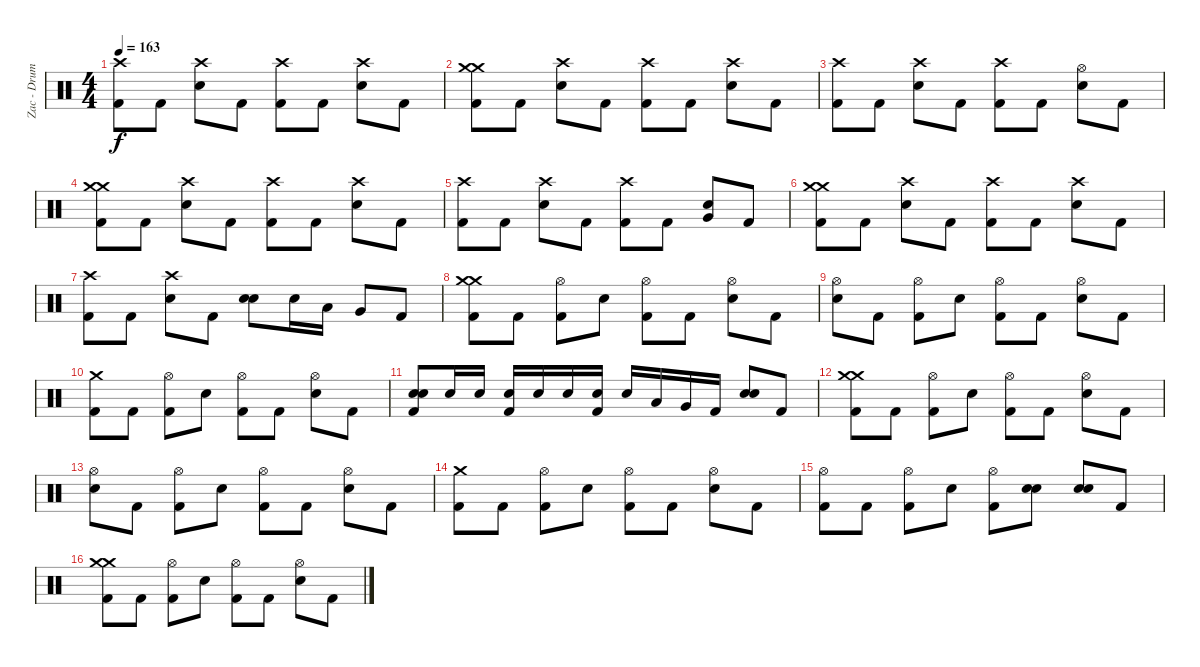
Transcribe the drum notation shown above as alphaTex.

\track ("Zac - Drums" "Zac - Drum") {instrument percussion}
\staff {score}
\articulation defaults
\ts (4 4)
\tempo 163
\clef neutral
\ks c
("Crash high (hit)" "Kick (hit) 2").8{dy f} "Kick (hit) 2".8 ("Crash high (hit)" "Snare (hit) 2").8 "Kick (hit) 2".8 ("Crash high (hit)" "Kick (hit) 2").8 "Kick (hit) 2".8 ("Crash high (hit)" "Snare (hit) 2").8 "Kick (hit) 2".8 |
("Crash medium (hit)" "Crash medium (hit)" "Kick (hit) 2").8 "Kick (hit) 2".8 ("Crash high (hit)" "Snare (hit) 2").8 "Kick (hit) 2".8 ("Crash high (hit)" "Kick (hit) 2").8 "Kick (hit) 2".8 ("Crash high (hit)" "Snare (hit) 2").8 "Kick (hit) 2".8 |
("Crash high (hit)" "Kick (hit) 2").8 "Kick (hit) 2".8 ("Crash high (hit)" "Snare (hit) 2").8 "Kick (hit) 2".8 ("Crash high (hit)" "Kick (hit) 2").8 "Kick (hit) 2".8 ("Hi-Hat (open)" "Snare (hit) 2").8 "Kick (hit) 2".8 |
("Crash medium (hit)" "Crash medium (hit)" "Kick (hit) 2").8 "Kick (hit) 2".8 ("Crash high (hit)" "Snare (hit) 2").8 "Kick (hit) 2".8 ("Crash high (hit)" "Kick (hit) 2").8 "Kick (hit) 2".8 ("Crash high (hit)" "Snare (hit) 2").8 "Kick (hit) 2".8 |
("Crash high (hit)" "Kick (hit) 2").8 "Kick (hit) 2".8 ("Crash high (hit)" "Snare (hit) 2").8 "Kick (hit) 2".8 ("Crash high (hit)" "Kick (hit) 2").8 "Kick (hit) 2".8 ("Snare (hit) 2" "Very Low Tom (hit)").8 "Kick (hit) 2".8 |
("Crash medium (hit)" "Crash medium (hit)" "Kick (hit) 2").8 "Kick (hit) 2".8 ("Crash high (hit)" "Snare (hit) 2").8 "Kick (hit) 2".8 ("Crash high (hit)" "Kick (hit) 2").8 "Kick (hit) 2".8 ("Crash high (hit)" "Snare (hit) 2").8 "Kick (hit) 2".8 |
("Crash high (hit)" "Kick (hit) 2").8 "Kick (hit) 2".8 ("Crash high (hit)" "Snare (hit) 2").8 "Kick (hit) 2".8 ("Snare (hit) 2" "Snare (hit) 2").8 "Snare (hit) 2".16 "Low Tom (hit)".16 "Very Low Tom (hit)".8 "Kick (hit) 2".8 |
("Crash medium (hit)" "Crash medium (hit)" "Kick (hit) 2").8 "Kick (hit) 2".8 ("Hi-Hat (open)" "Kick (hit) 2").8 "Snare (hit) 2".8 ("Hi-Hat (open)" "Kick (hit) 2").8 "Kick (hit) 2".8 ("Hi-Hat (open)" "Snare (hit) 2").8 "Kick (hit) 2".8 |
("Hi-Hat (open)" "Snare (hit) 2").8 "Kick (hit) 2".8 ("Hi-Hat (open)" "Kick (hit) 2").8 "Snare (hit) 2".8 ("Hi-Hat (open)" "Kick (hit) 2").8 "Kick (hit) 2".8 ("Hi-Hat (open)" "Snare (hit) 2").8 "Kick (hit) 2".8 |
("Crash medium (hit)" "Kick (hit) 2").8 "Kick (hit) 2".8 ("Hi-Hat (open)" "Kick (hit) 2").8 "Snare (hit) 2".8 ("Hi-Hat (open)" "Kick (hit) 2").8 "Kick (hit) 2".8 ("Hi-Hat (open)" "Snare (hit) 2").8 "Kick (hit) 2".8 |
("Snare (hit) 2" "Snare (hit) 2" "Kick (hit) 2").8 "Snare (hit) 2".16 "Snare (hit) 2".16 ("Snare (hit) 2" "Kick (hit) 2").16 "Snare (hit) 2".16 "Snare (hit) 2".16 ("Snare (hit) 2" "Kick (hit) 2").16 "Snare (hit) 2".16 "Low Tom (hit)".16 "Very Low Tom (hit)".16 "Kick (hit) 2".16 ("Snare (hit) 2" "Snare (hit) 2").8 "Kick (hit) 2".8 |
("Crash medium (hit)" "Crash medium (hit)" "Kick (hit) 2").8 "Kick (hit) 2".8 ("Hi-Hat (open)" "Kick (hit) 2").8 "Snare (hit) 2".8 ("Hi-Hat (open)" "Kick (hit) 2").8 "Kick (hit) 2".8 ("Hi-Hat (open)" "Snare (hit) 2").8 "Kick (hit) 2".8 |
("Hi-Hat (open)" "Snare (hit) 2").8 "Kick (hit) 2".8 ("Hi-Hat (open)" "Kick (hit) 2").8 "Snare (hit) 2".8 ("Hi-Hat (open)" "Kick (hit) 2").8 "Kick (hit) 2".8 ("Hi-Hat (open)" "Snare (hit) 2").8 "Kick (hit) 2".8 |
("Crash medium (hit)" "Kick (hit) 2").8 "Kick (hit) 2".8 ("Hi-Hat (open)" "Kick (hit) 2").8 "Snare (hit) 2".8 ("Hi-Hat (open)" "Kick (hit) 2").8 "Kick (hit) 2".8 ("Hi-Hat (open)" "Snare (hit) 2").8 "Kick (hit) 2".8 |
("Hi-Hat (open)" "Kick (hit) 2").8 "Kick (hit) 2".8 ("Hi-Hat (open)" "Kick (hit) 2").8 "Snare (hit) 2".8 ("Hi-Hat (open)" "Kick (hit) 2").8 ("Snare (hit) 2" "Snare (hit) 2").8 ("Snare (hit) 2" "Snare (hit) 2").8 "Kick (hit) 2".8 |
("Crash medium (hit)" "Crash medium (hit)" "Kick (hit) 2").8 "Kick (hit) 2".8 ("Hi-Hat (open)" "Kick (hit) 2").8 "Snare (hit) 2".8 ("Hi-Hat (open)" "Kick (hit) 2").8 "Kick (hit) 2".8 ("Hi-Hat (open)" "Snare (hit) 2").8 "Kick (hit) 2".8
